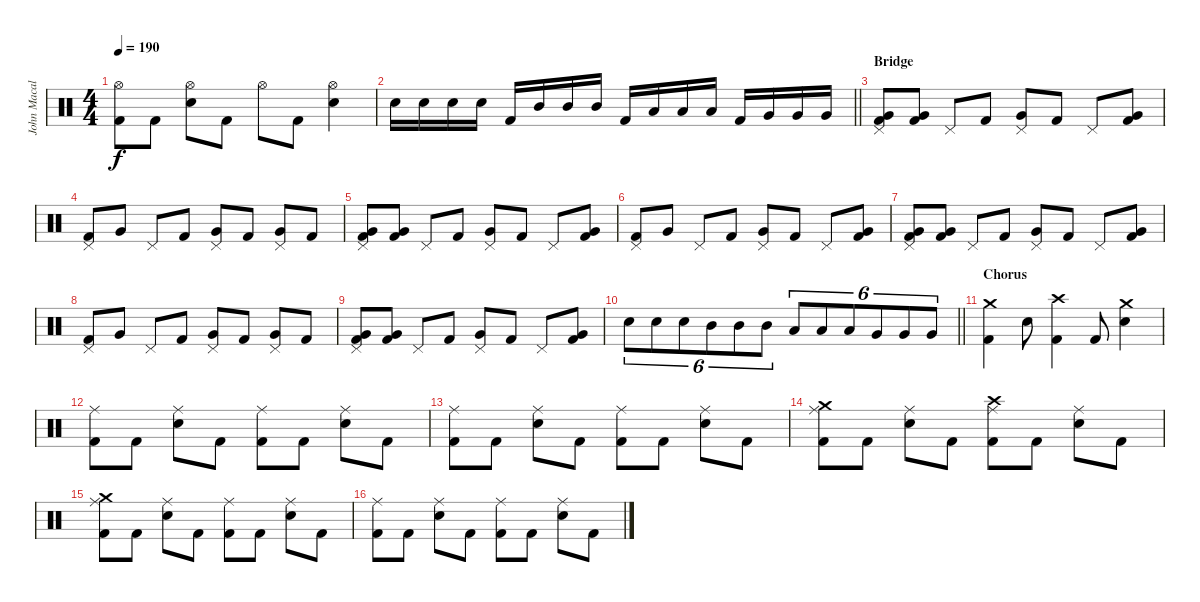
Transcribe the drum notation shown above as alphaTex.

\track ("John Macaluso" "John Macal") {instrument percussion}
\staff {score}
\articulation defaults
\ts (4 4)
\tempo 190
\clef neutral
\ks c
("Hi-Hat (open)" "Kick (hit) 2").8{dy f} "Kick (hit) 2".8 ("Hi-Hat (open)" "Snare (hit) 2").8 "Kick (hit) 2".8 "Hi-Hat (open)".8 "Kick (hit) 2".8 ("Hi-Hat (open)" "Snare (hit) 2").4 |
\barLineRight lightlight "Snare (hit) 2".16 "Snare (hit) 2".16 "Snare (hit) 2".16 "Snare (hit) 2".16 "Kick (hit) 2".16 "Mid Tom (hit)".16 "Mid Tom (hit)".16 "Mid Tom (hit)".16 "Kick (hit) 2".16 "Low Tom (hit)".16 "Low Tom (hit)".16 "Low Tom (hit)".16 "Kick (hit) 2".16 "Very Low Tom (hit)".16 "Very Low Tom (hit)".16 "Very Low Tom (hit)".16
|
\section ("" "Bridge")
("Pedal Hi-Hat (hit)" "Very Low Tom (hit)" "Kick (hit) 2").8 ("Very Low Tom (hit)" "Kick (hit) 2").8 "Pedal Hi-Hat (hit)".8 "Kick (hit) 2".8 ("Pedal Hi-Hat (hit)" "Very Low Tom (hit)").8 "Kick (hit) 2".8 "Pedal Hi-Hat (hit)".8 ("Very Low Tom (hit)" "Kick (hit) 2").8 |
("Pedal Hi-Hat (hit)" "Kick (hit) 2").8 "Very Low Tom (hit)".8 "Pedal Hi-Hat (hit)".8 "Kick (hit) 2".8 ("Pedal Hi-Hat (hit)" "Very Low Tom (hit)").8 "Kick (hit) 2".8 ("Pedal Hi-Hat (hit)" "Very Low Tom (hit)").8 "Kick (hit) 2".8 |
("Pedal Hi-Hat (hit)" "Very Low Tom (hit)" "Kick (hit) 2").8 ("Very Low Tom (hit)" "Kick (hit) 2").8 "Pedal Hi-Hat (hit)".8 "Kick (hit) 2".8 ("Pedal Hi-Hat (hit)" "Very Low Tom (hit)").8 "Kick (hit) 2".8 "Pedal Hi-Hat (hit)".8 ("Very Low Tom (hit)" "Kick (hit) 2").8 |
("Pedal Hi-Hat (hit)" "Kick (hit) 2").8 "Very Low Tom (hit)".8 "Pedal Hi-Hat (hit)".8 "Kick (hit) 2".8 ("Pedal Hi-Hat (hit)" "Very Low Tom (hit)").8 "Kick (hit) 2".8 "Pedal Hi-Hat (hit)".8 ("Very Low Tom (hit)" "Kick (hit) 2").8 |
("Pedal Hi-Hat (hit)" "Very Low Tom (hit)" "Kick (hit) 2").8 ("Very Low Tom (hit)" "Kick (hit) 2").8 "Pedal Hi-Hat (hit)".8 "Kick (hit) 2".8 ("Pedal Hi-Hat (hit)" "Very Low Tom (hit)").8 "Kick (hit) 2".8 "Pedal Hi-Hat (hit)".8 ("Very Low Tom (hit)" "Kick (hit) 2").8 |
("Pedal Hi-Hat (hit)" "Kick (hit) 2").8 "Very Low Tom (hit)".8 "Pedal Hi-Hat (hit)".8 "Kick (hit) 2".8 ("Pedal Hi-Hat (hit)" "Very Low Tom (hit)").8 "Kick (hit) 2".8 ("Pedal Hi-Hat (hit)" "Very Low Tom (hit)").8 "Kick (hit) 2".8 |
("Pedal Hi-Hat (hit)" "Very Low Tom (hit)" "Kick (hit) 2").8 ("Very Low Tom (hit)" "Kick (hit) 2").8 "Pedal Hi-Hat (hit)".8 "Kick (hit) 2".8 ("Pedal Hi-Hat (hit)" "Very Low Tom (hit)").8 "Kick (hit) 2".8 "Pedal Hi-Hat (hit)".8 ("Very Low Tom (hit)" "Kick (hit) 2").8 |
\barLineRight lightlight "Snare (hit) 2".8{tu (6 4)} "Snare (hit) 2".8{tu (6 4)} "Snare (hit) 2".8{tu (6 4)} "Mid Tom (hit)".8{tu (6 4)} "Mid Tom (hit)".8{tu (6 4)} "Mid Tom (hit)".8{tu (6 4)} "Low Tom (hit)".8{tu (6 4)} "Low Tom (hit)".8{tu (6 4)} "Low Tom (hit)".8{tu (6 4)} "Very Low Tom (hit)".8{tu (6 4)} "Very Low Tom (hit)".8{tu (6 4)} "Very Low Tom (hit)".8{tu (6 4)}
|
\section ("" "Chorus")
("Crash medium (hit)" "Kick (hit) 2").4 "Snare (hit) 2".8 ("Crash high (hit)" "Kick (hit) 2").4 "Kick (hit) 2".8 ("Crash medium (hit)" "Snare (hit) 2").4 |
("Ride (middle)" "Kick (hit) 2").8 "Kick (hit) 2".8 ("Ride (middle)" "Snare (hit) 2").8 "Kick (hit) 2".8 ("Ride (middle)" "Kick (hit) 2").8 "Kick (hit) 2".8 ("Ride (middle)" "Snare (hit) 2").8 "Kick (hit) 2".8 |
("Ride (middle)" "Kick (hit) 2").8 "Kick (hit) 2".8 ("Ride (middle)" "Snare (hit) 2").8 "Kick (hit) 2".8 ("Ride (middle)" "Kick (hit) 2").8 "Kick (hit) 2".8 ("Ride (middle)" "Snare (hit) 2").8 "Kick (hit) 2".8 |
("Crash medium (hit)" "Ride (middle)" "Kick (hit) 2").8 "Kick (hit) 2".8 ("Ride (middle)" "Snare (hit) 2").8 "Kick (hit) 2".8 ("Crash high (hit)" "Ride (middle)" "Kick (hit) 2").8 "Kick (hit) 2".8 ("Ride (middle)" "Snare (hit) 2").8 "Kick (hit) 2".8 |
("Crash medium (hit)" "Ride (middle)" "Kick (hit) 2").8 "Kick (hit) 2".8 ("Ride (middle)" "Snare (hit) 2").8 "Kick (hit) 2".8 ("Ride (middle)" "Kick (hit) 2").8 "Kick (hit) 2".8 ("Ride (middle)" "Snare (hit) 2").8 "Kick (hit) 2".8 |
("Ride (middle)" "Kick (hit) 2").8 "Kick (hit) 2".8 ("Ride (middle)" "Snare (hit) 2").8 "Kick (hit) 2".8 ("Ride (middle)" "Kick (hit) 2").8 "Kick (hit) 2".8 ("Ride (middle)" "Snare (hit) 2").8 "Kick (hit) 2".8
